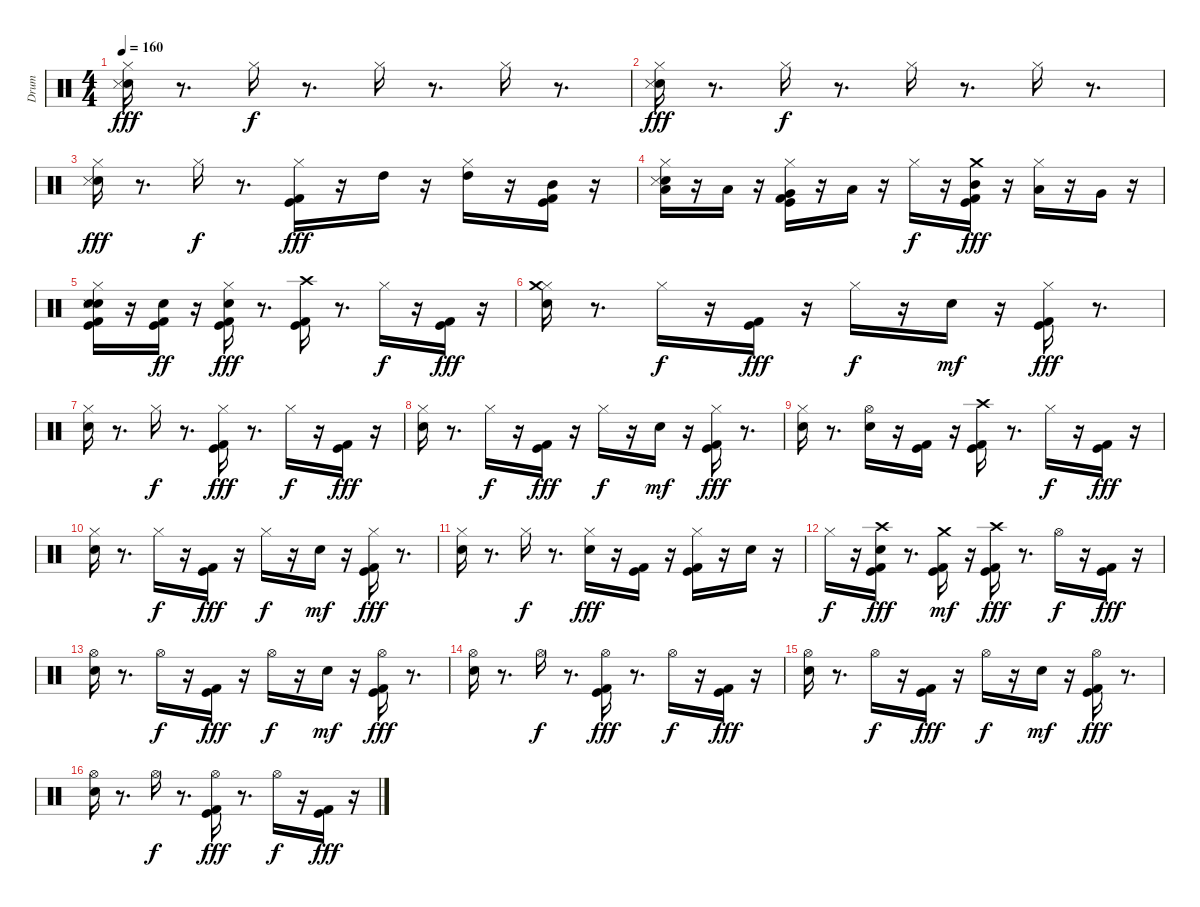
\track ("Drum" "Drum") {instrument percussion}
\staff {score}
\articulation defaults
\ts (4 4)
\tempo 160
\clef neutral
\ks c
("Hi-Hat (closed)" "Hand Clap (hit)" "Snare (side stick) 3").16{dy fff} r.8{d} "Hi-Hat (closed)".16{dy f} r.8{d} "Hi-Hat (closed)".16 r.8{d} "Hi-Hat (closed)".16 r.8{d} |
("Hi-Hat (closed)" "Hand Clap (hit)" "Snare (side stick) 3").16{dy fff} r.8{d} "Hi-Hat (closed)".16{dy f} r.8{d} "Hi-Hat (closed)".16 r.8{d} "Hi-Hat (closed)".16 r.8{d} |
("Hi-Hat (closed)" "Hand Clap (hit)" "Snare (side stick) 3").16{dy fff} r.8{d} "Hi-Hat (closed)".16{dy f} r.8{d} ("Kick (hit)" "Kick (hit) 2" "Hi-Hat (closed)").16{dy fff} r.16 "High Tom (hit)".16 r.16 ("Hi-Hat (closed)" "High Tom (hit)").16 r.16 ("Kick (hit)" "Kick (hit) 2" "Mid Tom (hit)").16 r.16 |
("Hi-Hat (closed)" "Low Tom (hit)" "Hand Clap (hit)" "Snare (side stick) 3").16 r.16 "Low Tom (hit)".16 r.16 ("Kick (hit)" "Kick (hit) 2" "Hi-Hat (closed)" "Very Low Tom (hit)").16 r.16 "Low Tom (hit)".16 r.16 "Hi-Hat (closed)".16{dy f} r.16 ("Kick (hit)" "Kick (hit) 2" "Crash medium (hit)" "Mid Tom (hit)").16{dy fff} r.16 ("Hi-Hat (closed)" "Low Tom (hit)").16 r.16 "Very Low Tom (hit)".16 r.16 |
("Kick (hit)" "Kick (hit) 2" "Hi-Hat (closed)" "Electric Snare (hit)" "Hand Clap (hit)" "Snare (side stick) 3").16 r.16 ("Kick (hit)" "Kick (hit) 2" "Electric Snare (hit)").16{dy ff} r.16 ("Kick (hit)" "Kick (hit) 2" "Hi-Hat (closed)" "Electric Snare (hit)").16{dy fff} r.8{d} ("Crash high (hit)" "Kick (hit)" "Kick (hit) 2").16 r.8{d} "Hi-Hat (closed)".16{dy f} r.16 ("Kick (hit)" "Kick (hit) 2").16{dy fff} r.16 |
("Hi-Hat (closed)" "Crash medium (hit)" "Electric Snare (hit)").16 r.8{d} "Hi-Hat (closed)".16{dy f} r.16 ("Kick (hit)" "Kick (hit) 2").16{dy fff} r.16 "Hi-Hat (closed)".16{dy f} r.16 "Electric Snare (hit)".16{dy mf} r.16 ("Kick (hit)" "Kick (hit) 2" "Hi-Hat (closed)").16{dy fff} r.8{d} |
("Hi-Hat (closed)" "Electric Snare (hit)").16 r.8{d} "Hi-Hat (closed)".16{dy f} r.8{d} ("Kick (hit)" "Kick (hit) 2" "Hi-Hat (closed)").16{dy fff} r.8{d} "Hi-Hat (closed)".16{dy f} r.16 ("Kick (hit)" "Kick (hit) 2").16{dy fff} r.16 |
("Hi-Hat (closed)" "Electric Snare (hit)").16 r.8{d} "Hi-Hat (closed)".16{dy f} r.16 ("Kick (hit)" "Kick (hit) 2").16{dy fff} r.16 "Hi-Hat (closed)".16{dy f} r.16 "Electric Snare (hit)".16{dy mf} r.16 ("Kick (hit)" "Kick (hit) 2" "Hi-Hat (closed)").16{dy fff} r.8{d} |
("Hi-Hat (closed)" "Electric Snare (hit)").16 r.8{d} ("Hi-Hat (open)" "Electric Snare (hit)").16 r.16 ("Kick (hit)" "Kick (hit) 2").16 r.16 ("Crash high (hit)" "Kick (hit)" "Kick (hit) 2").16 r.8{d} "Hi-Hat (closed)".16{dy f} r.16 ("Kick (hit)" "Kick (hit) 2").16{dy fff} r.16 |
("Hi-Hat (closed)" "Electric Snare (hit)").16 r.8{d} "Hi-Hat (closed)".16{dy f} r.16 ("Kick (hit)" "Kick (hit) 2").16{dy fff} r.16 "Hi-Hat (closed)".16{dy f} r.16 "Electric Snare (hit)".16{dy mf} r.16 ("Kick (hit)" "Kick (hit) 2" "Hi-Hat (closed)").16{dy fff} r.8{d} |
("Hi-Hat (closed)" "Electric Snare (hit)").16 r.8{d} "Hi-Hat (closed)".16{dy f} r.8{d} ("Electric Snare (hit)" "Hi-Hat (closed)").16{dy fff} r.16 ("Kick (hit)" "Kick (hit) 2").16 r.16 ("Kick (hit)" "Kick (hit) 2" "Hi-Hat (closed)").16 r.16 "Electric Snare (hit)".16 r.16 |
"Hi-Hat (closed)".16{dy f} r.16 ("Kick (hit)" "Kick (hit) 2" "Crash high (hit)" "Electric Snare (hit)").16{dy fff} r.8{d} ("Kick (hit)" "Kick (hit) 2" "Crash medium (hit)").16{dy mf} r.16 ("Crash high (hit)" "Kick (hit)" "Kick (hit) 2").16{dy fff} r.8{d} "Hi-Hat (open)".16{dy f} r.16 ("Kick (hit)" "Kick (hit) 2").16{dy fff} r.16 |
("Hi-Hat (open)" "Electric Snare (hit)").16 r.8{d} "Hi-Hat (open)".16{dy f} r.16 ("Kick (hit)" "Kick (hit) 2").16{dy fff} r.16 "Hi-Hat (open)".16{dy f} r.16 "Electric Snare (hit)".16{dy mf} r.16 ("Kick (hit)" "Kick (hit) 2" "Hi-Hat (open)").16{dy fff} r.8{d} |
("Hi-Hat (open)" "Electric Snare (hit)").16 r.8{d} "Hi-Hat (open)".16{dy f} r.8{d} ("Kick (hit)" "Kick (hit) 2" "Hi-Hat (open)").16{dy fff} r.8{d} "Hi-Hat (open)".16{dy f} r.16 ("Kick (hit)" "Kick (hit) 2").16{dy fff} r.16 |
("Hi-Hat (open)" "Electric Snare (hit)").16 r.8{d} "Hi-Hat (open)".16{dy f} r.16 ("Kick (hit)" "Kick (hit) 2").16{dy fff} r.16 "Hi-Hat (open)".16{dy f} r.16 "Electric Snare (hit)".16{dy mf} r.16 ("Kick (hit)" "Kick (hit) 2" "Hi-Hat (open)").16{dy fff} r.8{d} |
("Hi-Hat (open)" "Electric Snare (hit)").16 r.8{d} "Hi-Hat (open)".16{dy f} r.8{d} ("Kick (hit)" "Kick (hit) 2" "Hi-Hat (open)").16{dy fff} r.8{d} "Hi-Hat (open)".16{dy f} r.16 ("Kick (hit)" "Kick (hit) 2").16{dy fff} r.16
